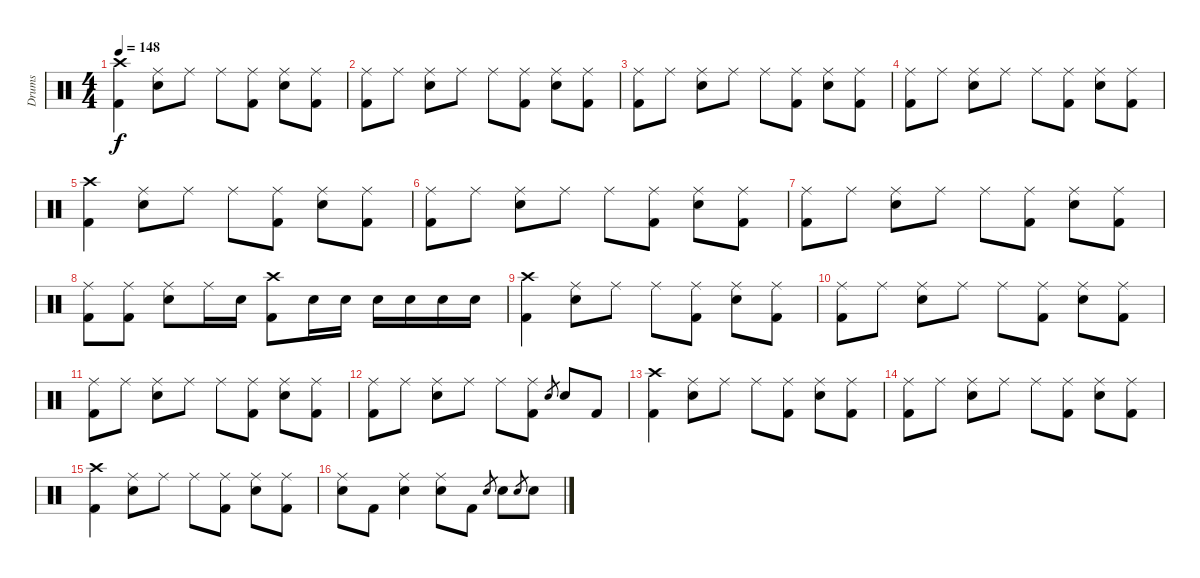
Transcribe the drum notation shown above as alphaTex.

\track ("Drums" "Drums") {instrument percussion}
\staff {score}
\articulation defaults
\ts (4 4)
\tempo 148
\clef neutral
\ks c
("Crash high (hit)" "Kick (hit) 2").4{dy f} ("Ride (middle)" "Electric Snare (hit)").8 "Ride (middle)".8 "Ride (middle)".8 ("Ride (middle)" "Kick (hit) 2").8 ("Ride (middle)" "Electric Snare (hit)").8 ("Ride (middle)" "Kick (hit) 2").8 |
("Ride (middle)" "Kick (hit) 2").8 "Ride (middle)".8 ("Ride (middle)" "Electric Snare (hit)").8 "Ride (middle)".8 "Ride (middle)".8 ("Ride (middle)" "Kick (hit) 2").8 ("Ride (middle)" "Electric Snare (hit)").8 ("Ride (middle)" "Kick (hit) 2").8 |
("Ride (middle)" "Kick (hit) 2").8 "Ride (middle)".8 ("Ride (middle)" "Electric Snare (hit)").8 "Ride (middle)".8 "Ride (middle)".8 ("Ride (middle)" "Kick (hit) 2").8 ("Ride (middle)" "Electric Snare (hit)").8 ("Ride (middle)" "Kick (hit) 2").8 |
("Ride (middle)" "Kick (hit) 2").8 "Ride (middle)".8 ("Ride (middle)" "Electric Snare (hit)").8 "Ride (middle)".8 "Ride (middle)".8 ("Ride (middle)" "Kick (hit) 2").8 ("Ride (middle)" "Electric Snare (hit)").8 ("Ride (middle)" "Kick (hit) 2").8 |
("Crash high (hit)" "Kick (hit) 2").4 ("Ride (middle)" "Electric Snare (hit)").8 "Ride (middle)".8 "Ride (middle)".8 ("Ride (middle)" "Kick (hit) 2").8 ("Ride (middle)" "Electric Snare (hit)").8 ("Ride (middle)" "Kick (hit) 2").8 |
("Ride (middle)" "Kick (hit) 2").8 "Ride (middle)".8 ("Ride (middle)" "Electric Snare (hit)").8 "Ride (middle)".8 "Ride (middle)".8 ("Ride (middle)" "Kick (hit) 2").8 ("Ride (middle)" "Electric Snare (hit)").8 ("Ride (middle)" "Kick (hit) 2").8 |
("Ride (middle)" "Kick (hit) 2").8 "Ride (middle)".8 ("Ride (middle)" "Electric Snare (hit)").8 "Ride (middle)".8 "Ride (middle)".8 ("Ride (middle)" "Kick (hit) 2").8 ("Ride (middle)" "Electric Snare (hit)").8 ("Ride (middle)" "Kick (hit) 2").8 |
("Ride (middle)" "Kick (hit) 2").8 ("Ride (middle)" "Kick (hit) 2").8 ("Ride (middle)" "Electric Snare (hit)").8 "Ride (middle)".16 "Electric Snare (hit)".16 ("Crash high (hit)" "Kick (hit) 2").8 "Electric Snare (hit)".16 "Electric Snare (hit)".16 "Electric Snare (hit)".16 "Electric Snare (hit)".16 "Electric Snare (hit)".16 "Electric Snare (hit)".16 |
("Crash high (hit)" "Kick (hit) 2").4 ("Ride (middle)" "Electric Snare (hit)").8 "Ride (middle)".8 "Ride (middle)".8 ("Ride (middle)" "Kick (hit) 2").8 ("Ride (middle)" "Electric Snare (hit)").8 ("Ride (middle)" "Kick (hit) 2").8 |
("Ride (middle)" "Kick (hit) 2").8 "Ride (middle)".8 ("Ride (middle)" "Electric Snare (hit)").8 "Ride (middle)".8 "Ride (middle)".8 ("Ride (middle)" "Kick (hit) 2").8 ("Ride (middle)" "Electric Snare (hit)").8 ("Ride (middle)" "Kick (hit) 2").8 |
("Ride (middle)" "Kick (hit) 2").8 "Ride (middle)".8 ("Ride (middle)" "Electric Snare (hit)").8 "Ride (middle)".8 "Ride (middle)".8 ("Ride (middle)" "Kick (hit) 2").8 ("Ride (middle)" "Electric Snare (hit)").8 ("Ride (middle)" "Kick (hit) 2").8 |
("Ride (middle)" "Kick (hit) 2").8 "Ride (middle)".8 ("Ride (middle)" "Electric Snare (hit)").8 "Ride (middle)".8 "Ride (middle)".8 ("Ride (middle)" "Kick (hit) 2").8 "Electric Snare (hit)".8{gr} "Electric Snare (hit)".8 "Kick (hit) 2".8 |
("Crash high (hit)" "Kick (hit) 2").4 ("Ride (middle)" "Electric Snare (hit)").8 "Ride (middle)".8 "Ride (middle)".8 ("Ride (middle)" "Kick (hit) 2").8 ("Ride (middle)" "Electric Snare (hit)").8 ("Ride (middle)" "Kick (hit) 2").8 |
("Ride (middle)" "Kick (hit) 2").8 "Ride (middle)".8 ("Ride (middle)" "Electric Snare (hit)").8 "Ride (middle)".8 "Ride (middle)".8 ("Ride (middle)" "Kick (hit) 2").8 ("Ride (middle)" "Electric Snare (hit)").8 ("Ride (middle)" "Kick (hit) 2").8 |
("Crash high (hit)" "Kick (hit) 2").4 ("Ride (middle)" "Electric Snare (hit)").8 "Ride (middle)".8 "Ride (middle)".8 ("Ride (middle)" "Kick (hit) 2").8 ("Ride (middle)" "Electric Snare (hit)").8 ("Ride (middle)" "Kick (hit) 2").8 |
("Ride (middle)" "Electric Snare (hit)").8 "Kick (hit) 2".8 ("Ride (middle)" "Electric Snare (hit)").4 ("Ride (middle)" "Electric Snare (hit)").8 "Kick (hit) 2".8 "Electric Snare (hit)".8{gr} "Electric Snare (hit)".8 "Electric Snare (hit)".8{gr} "Electric Snare (hit)".8
